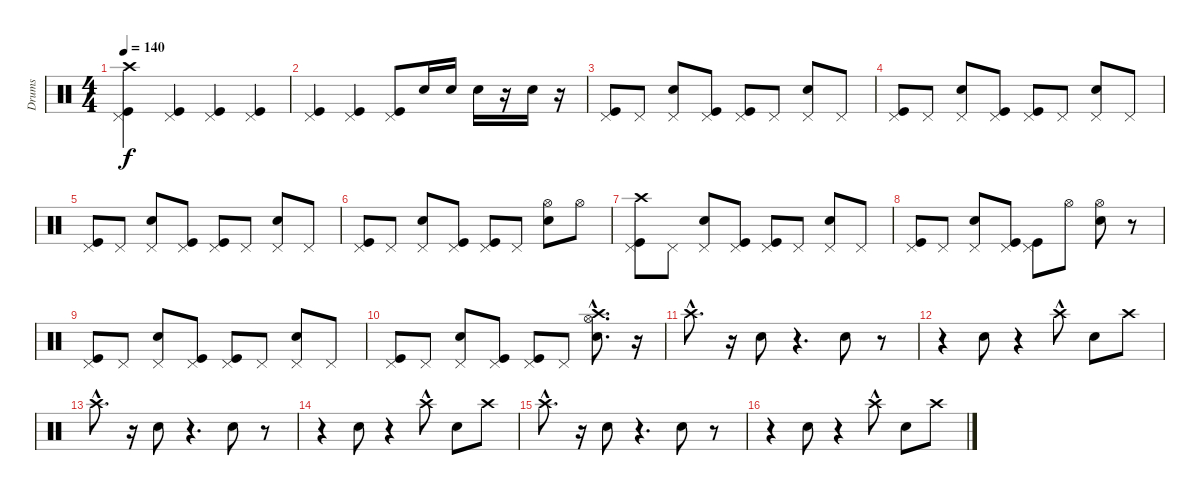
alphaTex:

\track ("Drums" "Drums") {instrument percussion}
\staff {score}
\articulation defaults
\ts (4 4)
\tempo 140
\clef neutral
\ks c
("Pedal Hi-Hat (hit)" "Kick (hit)" "Crash high (hit)").4{dy f} ("Kick (hit)" "Pedal Hi-Hat (hit)").4 ("Pedal Hi-Hat (hit)" "Kick (hit)").4 ("Pedal Hi-Hat (hit)" "Kick (hit)").4 |
("Pedal Hi-Hat (hit)" "Kick (hit)").4 ("Kick (hit)" "Pedal Hi-Hat (hit)").4 ("Pedal Hi-Hat (hit)" "Kick (hit)").8 "Electric Snare (hit)".16 "Electric Snare (hit)".16 "Electric Snare (hit)".16 r.16 "Electric Snare (hit)".16 r.16 |
("Kick (hit)" "Pedal Hi-Hat (hit)").8 "Pedal Hi-Hat (hit)".8 ("Pedal Hi-Hat (hit)" "Electric Snare (hit)").8 ("Pedal Hi-Hat (hit)" "Kick (hit)").8 ("Kick (hit)" "Pedal Hi-Hat (hit)").8 "Pedal Hi-Hat (hit)".8 ("Electric Snare (hit)" "Pedal Hi-Hat (hit)").8 "Pedal Hi-Hat (hit)".8 |
("Kick (hit)" "Pedal Hi-Hat (hit)").8 "Pedal Hi-Hat (hit)".8 ("Pedal Hi-Hat (hit)" "Electric Snare (hit)").8 ("Pedal Hi-Hat (hit)" "Kick (hit)").8 ("Kick (hit)" "Pedal Hi-Hat (hit)").8 "Pedal Hi-Hat (hit)".8 ("Electric Snare (hit)" "Pedal Hi-Hat (hit)").8 "Pedal Hi-Hat (hit)".8 |
("Kick (hit)" "Pedal Hi-Hat (hit)").8 "Pedal Hi-Hat (hit)".8 ("Pedal Hi-Hat (hit)" "Electric Snare (hit)").8 ("Pedal Hi-Hat (hit)" "Kick (hit)").8 ("Kick (hit)" "Pedal Hi-Hat (hit)").8 "Pedal Hi-Hat (hit)".8 ("Electric Snare (hit)" "Pedal Hi-Hat (hit)").8 "Pedal Hi-Hat (hit)".8 |
("Kick (hit)" "Pedal Hi-Hat (hit)").8 "Pedal Hi-Hat (hit)".8 ("Pedal Hi-Hat (hit)" "Electric Snare (hit)").8 ("Pedal Hi-Hat (hit)" "Kick (hit)").8 ("Kick (hit)" "Pedal Hi-Hat (hit)").8 "Pedal Hi-Hat (hit)".8 ("Electric Snare (hit)" "Hi-Hat (open)").8 "Hi-Hat (open)".8 |
("Crash high (hit)" "Kick (hit)" "Pedal Hi-Hat (hit)").8 "Pedal Hi-Hat (hit)".8 ("Pedal Hi-Hat (hit)" "Electric Snare (hit)").8 ("Pedal Hi-Hat (hit)" "Kick (hit)").8 ("Kick (hit)" "Pedal Hi-Hat (hit)").8 "Pedal Hi-Hat (hit)".8 ("Electric Snare (hit)" "Pedal Hi-Hat (hit)").8 "Pedal Hi-Hat (hit)".8 |
("Kick (hit)" "Pedal Hi-Hat (hit)").8 "Pedal Hi-Hat (hit)".8 ("Pedal Hi-Hat (hit)" "Electric Snare (hit)").8 ("Pedal Hi-Hat (hit)" "Kick (hit)").8 ("Kick (hit)" "Pedal Hi-Hat (hit)").8 "Hi-Hat (open)".8 ("Hi-Hat (open)" "Electric Snare (hit)").8 r.8 |
("Kick (hit)" "Pedal Hi-Hat (hit)").8 "Pedal Hi-Hat (hit)".8 ("Pedal Hi-Hat (hit)" "Electric Snare (hit)").8 ("Pedal Hi-Hat (hit)" "Kick (hit)").8 ("Kick (hit)" "Pedal Hi-Hat (hit)").8 "Pedal Hi-Hat (hit)".8 ("Electric Snare (hit)" "Pedal Hi-Hat (hit)").8 "Pedal Hi-Hat (hit)".8 |
("Kick (hit)" "Pedal Hi-Hat (hit)").8 "Pedal Hi-Hat (hit)".8 ("Pedal Hi-Hat (hit)" "Electric Snare (hit)").8 ("Pedal Hi-Hat (hit)" "Kick (hit)").8 ("Kick (hit)" "Pedal Hi-Hat (hit)").8 "Pedal Hi-Hat (hit)".8 ("Crash high (hit)"{hac} "Electric Snare (hit)" "Hi-Hat (open)").8{d} r.16 |
"Crash high (hit)"{hac}.8{d} r.16 "Electric Snare (hit)".8 r.4{d} "Electric Snare (hit)".8 r.8 |
r.4 "Electric Snare (hit)".8 r.4 "Crash high (hit)"{hac}.8 "Electric Snare (hit)".8 "Crash high (hit)".8 |
"Crash high (hit)"{hac}.8{d} r.16 "Electric Snare (hit)".8 r.4{d} "Electric Snare (hit)".8 r.8 |
r.4 "Electric Snare (hit)".8 r.4 "Crash high (hit)"{hac}.8 "Electric Snare (hit)".8 "Crash high (hit)".8 |
"Crash high (hit)"{hac}.8{d} r.16 "Electric Snare (hit)".8 r.4{d} "Electric Snare (hit)".8 r.8 |
r.4 "Electric Snare (hit)".8 r.4 "Crash high (hit)"{hac}.8 "Electric Snare (hit)".8 "Crash high (hit)".8
